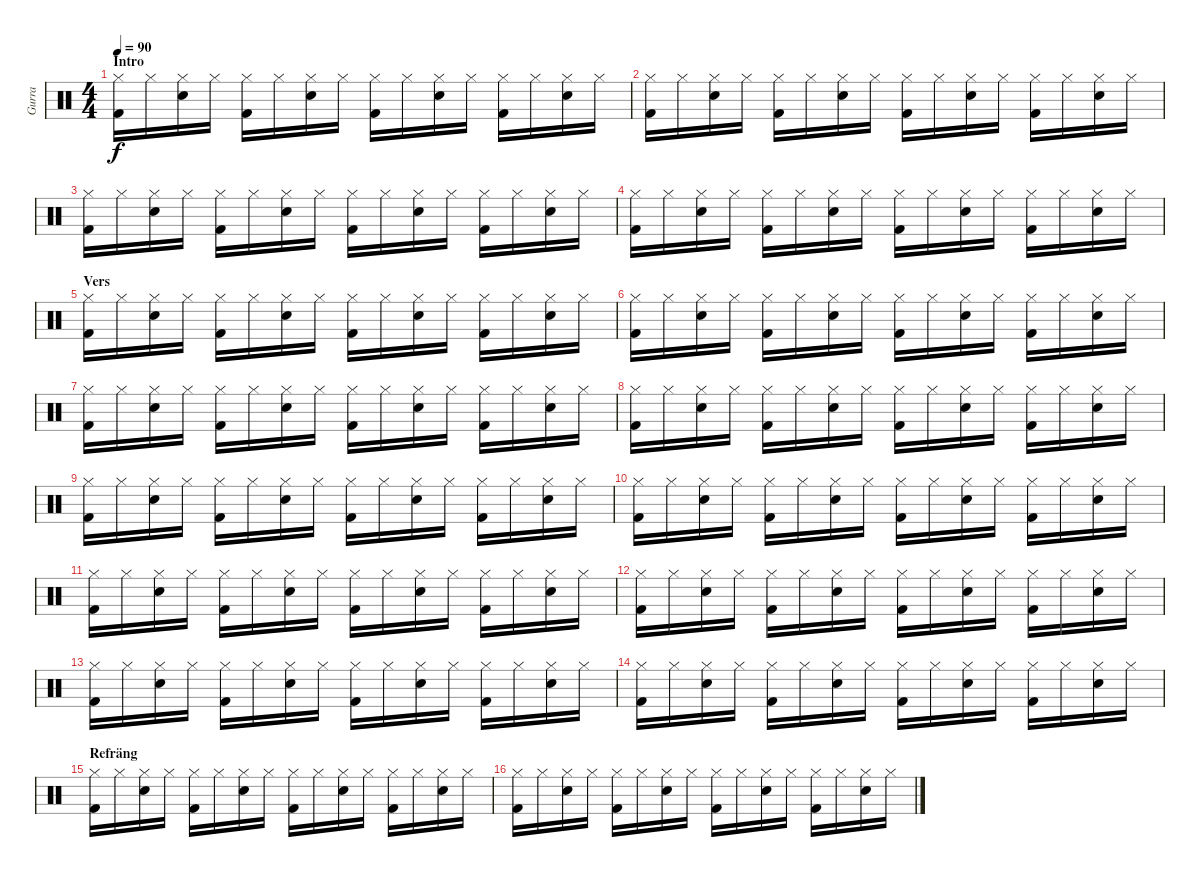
\track ("Gurra" "Gurra") {instrument percussion}
\staff {score}
\articulation defaults
\ts (4 4)
\section ("" "Intro")
\tempo 90
\clef neutral
\ks c
("Kick (hit) 2" "Hi-Hat (closed)").16{dy f} "Hi-Hat (closed)".16 ("Snare (hit) 2" "Hi-Hat (closed)").16 "Hi-Hat (closed)".16 ("Kick (hit) 2" "Hi-Hat (closed)").16 "Hi-Hat (closed)".16 ("Snare (hit) 2" "Hi-Hat (closed)").16 "Hi-Hat (closed)".16 ("Kick (hit) 2" "Hi-Hat (closed)").16 "Hi-Hat (closed)".16 ("Snare (hit) 2" "Hi-Hat (closed)").16 "Hi-Hat (closed)".16 ("Kick (hit) 2" "Hi-Hat (closed)").16 "Hi-Hat (closed)".16 ("Snare (hit) 2" "Hi-Hat (closed)").16 "Hi-Hat (closed)".16 |
("Kick (hit) 2" "Hi-Hat (closed)").16 "Hi-Hat (closed)".16 ("Snare (hit) 2" "Hi-Hat (closed)").16 "Hi-Hat (closed)".16 ("Kick (hit) 2" "Hi-Hat (closed)").16 "Hi-Hat (closed)".16 ("Snare (hit) 2" "Hi-Hat (closed)").16 "Hi-Hat (closed)".16 ("Kick (hit) 2" "Hi-Hat (closed)").16 "Hi-Hat (closed)".16 ("Snare (hit) 2" "Hi-Hat (closed)").16 "Hi-Hat (closed)".16 ("Kick (hit) 2" "Hi-Hat (closed)").16 "Hi-Hat (closed)".16 ("Snare (hit) 2" "Hi-Hat (closed)").16 "Hi-Hat (closed)".16 |
("Kick (hit) 2" "Hi-Hat (closed)").16 "Hi-Hat (closed)".16 ("Snare (hit) 2" "Hi-Hat (closed)").16 "Hi-Hat (closed)".16 ("Kick (hit) 2" "Hi-Hat (closed)").16 "Hi-Hat (closed)".16 ("Snare (hit) 2" "Hi-Hat (closed)").16 "Hi-Hat (closed)".16 ("Kick (hit) 2" "Hi-Hat (closed)").16 "Hi-Hat (closed)".16 ("Snare (hit) 2" "Hi-Hat (closed)").16 "Hi-Hat (closed)".16 ("Kick (hit) 2" "Hi-Hat (closed)").16 "Hi-Hat (closed)".16 ("Snare (hit) 2" "Hi-Hat (closed)").16 "Hi-Hat (closed)".16 |
("Kick (hit) 2" "Hi-Hat (closed)").16 "Hi-Hat (closed)".16 ("Snare (hit) 2" "Hi-Hat (closed)").16 "Hi-Hat (closed)".16 ("Kick (hit) 2" "Hi-Hat (closed)").16 "Hi-Hat (closed)".16 ("Snare (hit) 2" "Hi-Hat (closed)").16 "Hi-Hat (closed)".16 ("Kick (hit) 2" "Hi-Hat (closed)").16 "Hi-Hat (closed)".16 ("Snare (hit) 2" "Hi-Hat (closed)").16 "Hi-Hat (closed)".16 ("Kick (hit) 2" "Hi-Hat (closed)").16 "Hi-Hat (closed)".16 ("Snare (hit) 2" "Hi-Hat (closed)").16 "Hi-Hat (closed)".16 |
\section ("" "Vers")
("Kick (hit) 2" "Hi-Hat (closed)").16 "Hi-Hat (closed)".16 ("Snare (hit) 2" "Hi-Hat (closed)").16 "Hi-Hat (closed)".16 ("Kick (hit) 2" "Hi-Hat (closed)").16 "Hi-Hat (closed)".16 ("Snare (hit) 2" "Hi-Hat (closed)").16 "Hi-Hat (closed)".16 ("Kick (hit) 2" "Hi-Hat (closed)").16 "Hi-Hat (closed)".16 ("Snare (hit) 2" "Hi-Hat (closed)").16 "Hi-Hat (closed)".16 ("Kick (hit) 2" "Hi-Hat (closed)").16 "Hi-Hat (closed)".16 ("Snare (hit) 2" "Hi-Hat (closed)").16 "Hi-Hat (closed)".16 |
("Kick (hit) 2" "Hi-Hat (closed)").16 "Hi-Hat (closed)".16 ("Snare (hit) 2" "Hi-Hat (closed)").16 "Hi-Hat (closed)".16 ("Kick (hit) 2" "Hi-Hat (closed)").16 "Hi-Hat (closed)".16 ("Snare (hit) 2" "Hi-Hat (closed)").16 "Hi-Hat (closed)".16 ("Kick (hit) 2" "Hi-Hat (closed)").16 "Hi-Hat (closed)".16 ("Snare (hit) 2" "Hi-Hat (closed)").16 "Hi-Hat (closed)".16 ("Kick (hit) 2" "Hi-Hat (closed)").16 "Hi-Hat (closed)".16 ("Snare (hit) 2" "Hi-Hat (closed)").16 "Hi-Hat (closed)".16 |
("Kick (hit) 2" "Hi-Hat (closed)").16 "Hi-Hat (closed)".16 ("Snare (hit) 2" "Hi-Hat (closed)").16 "Hi-Hat (closed)".16 ("Kick (hit) 2" "Hi-Hat (closed)").16 "Hi-Hat (closed)".16 ("Snare (hit) 2" "Hi-Hat (closed)").16 "Hi-Hat (closed)".16 ("Kick (hit) 2" "Hi-Hat (closed)").16 "Hi-Hat (closed)".16 ("Snare (hit) 2" "Hi-Hat (closed)").16 "Hi-Hat (closed)".16 ("Kick (hit) 2" "Hi-Hat (closed)").16 "Hi-Hat (closed)".16 ("Snare (hit) 2" "Hi-Hat (closed)").16 "Hi-Hat (closed)".16 |
("Kick (hit) 2" "Hi-Hat (closed)").16 "Hi-Hat (closed)".16 ("Snare (hit) 2" "Hi-Hat (closed)").16 "Hi-Hat (closed)".16 ("Kick (hit) 2" "Hi-Hat (closed)").16 "Hi-Hat (closed)".16 ("Snare (hit) 2" "Hi-Hat (closed)").16 "Hi-Hat (closed)".16 ("Kick (hit) 2" "Hi-Hat (closed)").16 "Hi-Hat (closed)".16 ("Snare (hit) 2" "Hi-Hat (closed)").16 "Hi-Hat (closed)".16 ("Kick (hit) 2" "Hi-Hat (closed)").16 "Hi-Hat (closed)".16 ("Snare (hit) 2" "Hi-Hat (closed)").16 "Hi-Hat (closed)".16 |
("Kick (hit) 2" "Hi-Hat (closed)").16 "Hi-Hat (closed)".16 ("Snare (hit) 2" "Hi-Hat (closed)").16 "Hi-Hat (closed)".16 ("Kick (hit) 2" "Hi-Hat (closed)").16 "Hi-Hat (closed)".16 ("Snare (hit) 2" "Hi-Hat (closed)").16 "Hi-Hat (closed)".16 ("Kick (hit) 2" "Hi-Hat (closed)").16 "Hi-Hat (closed)".16 ("Snare (hit) 2" "Hi-Hat (closed)").16 "Hi-Hat (closed)".16 ("Kick (hit) 2" "Hi-Hat (closed)").16 "Hi-Hat (closed)".16 ("Snare (hit) 2" "Hi-Hat (closed)").16 "Hi-Hat (closed)".16 |
("Kick (hit) 2" "Hi-Hat (closed)").16 "Hi-Hat (closed)".16 ("Snare (hit) 2" "Hi-Hat (closed)").16 "Hi-Hat (closed)".16 ("Kick (hit) 2" "Hi-Hat (closed)").16 "Hi-Hat (closed)".16 ("Snare (hit) 2" "Hi-Hat (closed)").16 "Hi-Hat (closed)".16 ("Kick (hit) 2" "Hi-Hat (closed)").16 "Hi-Hat (closed)".16 ("Snare (hit) 2" "Hi-Hat (closed)").16 "Hi-Hat (closed)".16 ("Kick (hit) 2" "Hi-Hat (closed)").16 "Hi-Hat (closed)".16 ("Snare (hit) 2" "Hi-Hat (closed)").16 "Hi-Hat (closed)".16 |
("Kick (hit) 2" "Hi-Hat (closed)").16 "Hi-Hat (closed)".16 ("Snare (hit) 2" "Hi-Hat (closed)").16 "Hi-Hat (closed)".16 ("Kick (hit) 2" "Hi-Hat (closed)").16 "Hi-Hat (closed)".16 ("Snare (hit) 2" "Hi-Hat (closed)").16 "Hi-Hat (closed)".16 ("Kick (hit) 2" "Hi-Hat (closed)").16 "Hi-Hat (closed)".16 ("Snare (hit) 2" "Hi-Hat (closed)").16 "Hi-Hat (closed)".16 ("Kick (hit) 2" "Hi-Hat (closed)").16 "Hi-Hat (closed)".16 ("Snare (hit) 2" "Hi-Hat (closed)").16 "Hi-Hat (closed)".16 |
("Kick (hit) 2" "Hi-Hat (closed)").16 "Hi-Hat (closed)".16 ("Snare (hit) 2" "Hi-Hat (closed)").16 "Hi-Hat (closed)".16 ("Kick (hit) 2" "Hi-Hat (closed)").16 "Hi-Hat (closed)".16 ("Snare (hit) 2" "Hi-Hat (closed)").16 "Hi-Hat (closed)".16 ("Kick (hit) 2" "Hi-Hat (closed)").16 "Hi-Hat (closed)".16 ("Snare (hit) 2" "Hi-Hat (closed)").16 "Hi-Hat (closed)".16 ("Kick (hit) 2" "Hi-Hat (closed)").16 "Hi-Hat (closed)".16 ("Snare (hit) 2" "Hi-Hat (closed)").16 "Hi-Hat (closed)".16 |
("Kick (hit) 2" "Hi-Hat (closed)").16 "Hi-Hat (closed)".16 ("Snare (hit) 2" "Hi-Hat (closed)").16 "Hi-Hat (closed)".16 ("Kick (hit) 2" "Hi-Hat (closed)").16 "Hi-Hat (closed)".16 ("Snare (hit) 2" "Hi-Hat (closed)").16 "Hi-Hat (closed)".16 ("Kick (hit) 2" "Hi-Hat (closed)").16 "Hi-Hat (closed)".16 ("Snare (hit) 2" "Hi-Hat (closed)").16 "Hi-Hat (closed)".16 ("Kick (hit) 2" "Hi-Hat (closed)").16 "Hi-Hat (closed)".16 ("Snare (hit) 2" "Hi-Hat (closed)").16 "Hi-Hat (closed)".16 |
("Kick (hit) 2" "Hi-Hat (closed)").16 "Hi-Hat (closed)".16 ("Snare (hit) 2" "Hi-Hat (closed)").16 "Hi-Hat (closed)".16 ("Kick (hit) 2" "Hi-Hat (closed)").16 "Hi-Hat (closed)".16 ("Snare (hit) 2" "Hi-Hat (closed)").16 "Hi-Hat (closed)".16 ("Kick (hit) 2" "Hi-Hat (closed)").16 "Hi-Hat (closed)".16 ("Snare (hit) 2" "Hi-Hat (closed)").16 "Hi-Hat (closed)".16 ("Kick (hit) 2" "Hi-Hat (closed)").16 "Hi-Hat (closed)".16 ("Snare (hit) 2" "Hi-Hat (closed)").16 "Hi-Hat (closed)".16 |
\section ("" "Refräng")
("Kick (hit) 2" "Hi-Hat (closed)").16 "Hi-Hat (closed)".16 ("Snare (hit) 2" "Hi-Hat (closed)").16 "Hi-Hat (closed)".16 ("Kick (hit) 2" "Hi-Hat (closed)").16 "Hi-Hat (closed)".16 ("Snare (hit) 2" "Hi-Hat (closed)").16 "Hi-Hat (closed)".16 ("Kick (hit) 2" "Hi-Hat (closed)").16 "Hi-Hat (closed)".16 ("Snare (hit) 2" "Hi-Hat (closed)").16 "Hi-Hat (closed)".16 ("Kick (hit) 2" "Hi-Hat (closed)").16 "Hi-Hat (closed)".16 ("Snare (hit) 2" "Hi-Hat (closed)").16 "Hi-Hat (closed)".16 |
("Kick (hit) 2" "Hi-Hat (closed)").16 "Hi-Hat (closed)".16 ("Snare (hit) 2" "Hi-Hat (closed)").16 "Hi-Hat (closed)".16 ("Kick (hit) 2" "Hi-Hat (closed)").16 "Hi-Hat (closed)".16 ("Snare (hit) 2" "Hi-Hat (closed)").16 "Hi-Hat (closed)".16 ("Kick (hit) 2" "Hi-Hat (closed)").16 "Hi-Hat (closed)".16 ("Snare (hit) 2" "Hi-Hat (closed)").16 "Hi-Hat (closed)".16 ("Kick (hit) 2" "Hi-Hat (closed)").16 "Hi-Hat (closed)".16 ("Snare (hit) 2" "Hi-Hat (closed)").16 "Hi-Hat (closed)".16
